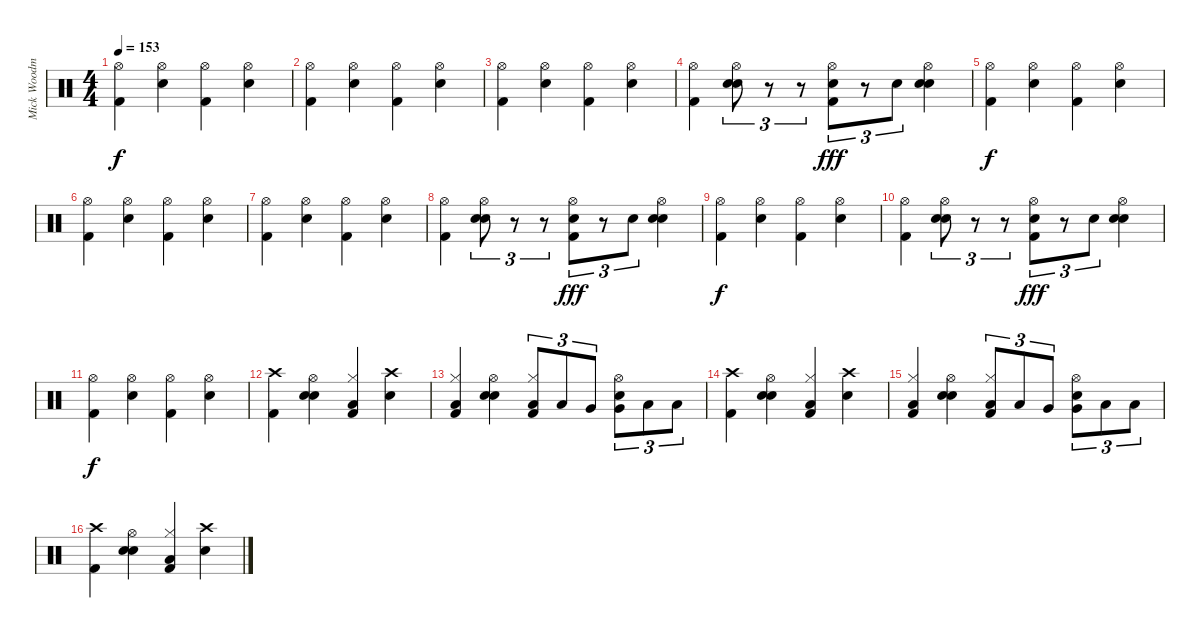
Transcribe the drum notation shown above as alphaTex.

\track ("Mick Woodmansey - Drums" "Mick Woodm") {instrument percussion}
\staff {score}
\articulation defaults
\ts (4 4)
\tempo 153
\clef neutral
\ks c
("Hi-Hat (open)" "Kick (hit) 2").4{dy f} ("Hi-Hat (open)" "Electric Snare (hit)").4 ("Hi-Hat (open)" "Kick (hit) 2").4 ("Hi-Hat (open)" "Electric Snare (hit)").4 |
("Hi-Hat (open)" "Kick (hit) 2").4 ("Hi-Hat (open)" "Electric Snare (hit)").4 ("Hi-Hat (open)" "Kick (hit) 2").4 ("Hi-Hat (open)" "Electric Snare (hit)").4 |
("Hi-Hat (open)" "Kick (hit) 2").4 ("Hi-Hat (open)" "Electric Snare (hit)").4 ("Hi-Hat (open)" "Kick (hit) 2").4 ("Hi-Hat (open)" "Electric Snare (hit)").4 |
("Hi-Hat (open)" "Kick (hit) 2").4 ("Hi-Hat (open)" "Hand Clap (hit)" "Electric Snare (hit)").8{tu (3 2)} r.8{tu (3 2)} r.8{tu (3 2)} ("Hi-Hat (open)" "Hand Clap (hit)" "Kick (hit) 2").8{tu (3 2) dy fff} r.8{tu (3 2)} "Hand Clap (hit)".8{tu (3 2)} ("Hi-Hat (open)" "Hand Clap (hit)" "Electric Snare (hit)").4 |
("Hi-Hat (open)" "Kick (hit) 2").4{dy f} ("Hi-Hat (open)" "Electric Snare (hit)").4 ("Hi-Hat (open)" "Kick (hit) 2").4 ("Hi-Hat (open)" "Electric Snare (hit)").4 |
("Hi-Hat (open)" "Kick (hit) 2").4 ("Hi-Hat (open)" "Electric Snare (hit)").4 ("Hi-Hat (open)" "Kick (hit) 2").4 ("Hi-Hat (open)" "Electric Snare (hit)").4 |
("Hi-Hat (open)" "Kick (hit) 2").4 ("Hi-Hat (open)" "Electric Snare (hit)").4 ("Hi-Hat (open)" "Kick (hit) 2").4 ("Hi-Hat (open)" "Electric Snare (hit)").4 |
("Hi-Hat (open)" "Kick (hit) 2").4 ("Hi-Hat (open)" "Hand Clap (hit)" "Electric Snare (hit)").8{tu (3 2)} r.8{tu (3 2)} r.8{tu (3 2)} ("Hi-Hat (open)" "Hand Clap (hit)" "Kick (hit) 2").8{tu (3 2) dy fff} r.8{tu (3 2)} "Hand Clap (hit)".8{tu (3 2)} ("Hi-Hat (open)" "Hand Clap (hit)" "Electric Snare (hit)").4 |
("Hi-Hat (open)" "Kick (hit) 2").4{dy f} ("Hi-Hat (open)" "Electric Snare (hit)").4 ("Hi-Hat (open)" "Kick (hit) 2").4 ("Hi-Hat (open)" "Electric Snare (hit)").4 |
("Hi-Hat (open)" "Kick (hit) 2").4 ("Hi-Hat (open)" "Hand Clap (hit)" "Electric Snare (hit)").8{tu (3 2)} r.8{tu (3 2)} r.8{tu (3 2)} ("Hi-Hat (open)" "Hand Clap (hit)" "Kick (hit) 2").8{tu (3 2) dy fff} r.8{tu (3 2)} "Hand Clap (hit)".8{tu (3 2)} ("Hi-Hat (open)" "Hand Clap (hit)" "Electric Snare (hit)").4 |
("Hi-Hat (open)" "Kick (hit) 2").4{dy f} ("Hi-Hat (open)" "Electric Snare (hit)").4 ("Hi-Hat (open)" "Kick (hit) 2").4 ("Hi-Hat (open)" "Electric Snare (hit)").4 |
("Crash high (hit)" "Kick (hit) 2").4 ("Hi-Hat (open)" "Electric Snare (hit)" "Electric Snare (hit)").4 ("Hi-Hat (closed)" "Low Floor Tom (hit)" "Kick (hit) 2").4 ("Crash high (hit)" "Electric Snare (hit)").4 |
("Hi-Hat (closed)" "Low Floor Tom (hit)" "Kick (hit) 2").4 ("Hi-Hat (open)" "Electric Snare (hit)" "Electric Snare (hit)").4 ("Hi-Hat (closed)" "Low Tom (hit)" "Kick (hit) 2").8{tu (3 2)} "Low Tom (hit)".8{tu (3 2)} "Very Low Tom (hit)".8{tu (3 2)} ("Hi-Hat (open)" "Electric Snare (hit)" "Very Low Tom (hit)").8{tu (3 2)} "Low Floor Tom (hit)".8{tu (3 2)} "Low Floor Tom (hit)".8{tu (3 2)} |
("Crash high (hit)" "Kick (hit) 2").4 ("Hi-Hat (open)" "Electric Snare (hit)" "Electric Snare (hit)").4 ("Hi-Hat (closed)" "Low Floor Tom (hit)" "Kick (hit) 2").4 ("Crash high (hit)" "Electric Snare (hit)").4 |
("Hi-Hat (closed)" "Low Floor Tom (hit)" "Kick (hit) 2").4 ("Hi-Hat (open)" "Electric Snare (hit)" "Electric Snare (hit)").4 ("Hi-Hat (closed)" "Low Tom (hit)" "Kick (hit) 2").8{tu (3 2)} "Low Tom (hit)".8{tu (3 2)} "Very Low Tom (hit)".8{tu (3 2)} ("Hi-Hat (open)" "Electric Snare (hit)" "Very Low Tom (hit)").8{tu (3 2)} "Low Floor Tom (hit)".8{tu (3 2)} "Low Floor Tom (hit)".8{tu (3 2)} |
("Crash high (hit)" "Kick (hit) 2").4 ("Hi-Hat (open)" "Electric Snare (hit)" "Electric Snare (hit)").4 ("Hi-Hat (closed)" "Low Floor Tom (hit)" "Kick (hit) 2").4 ("Crash high (hit)" "Electric Snare (hit)").4
